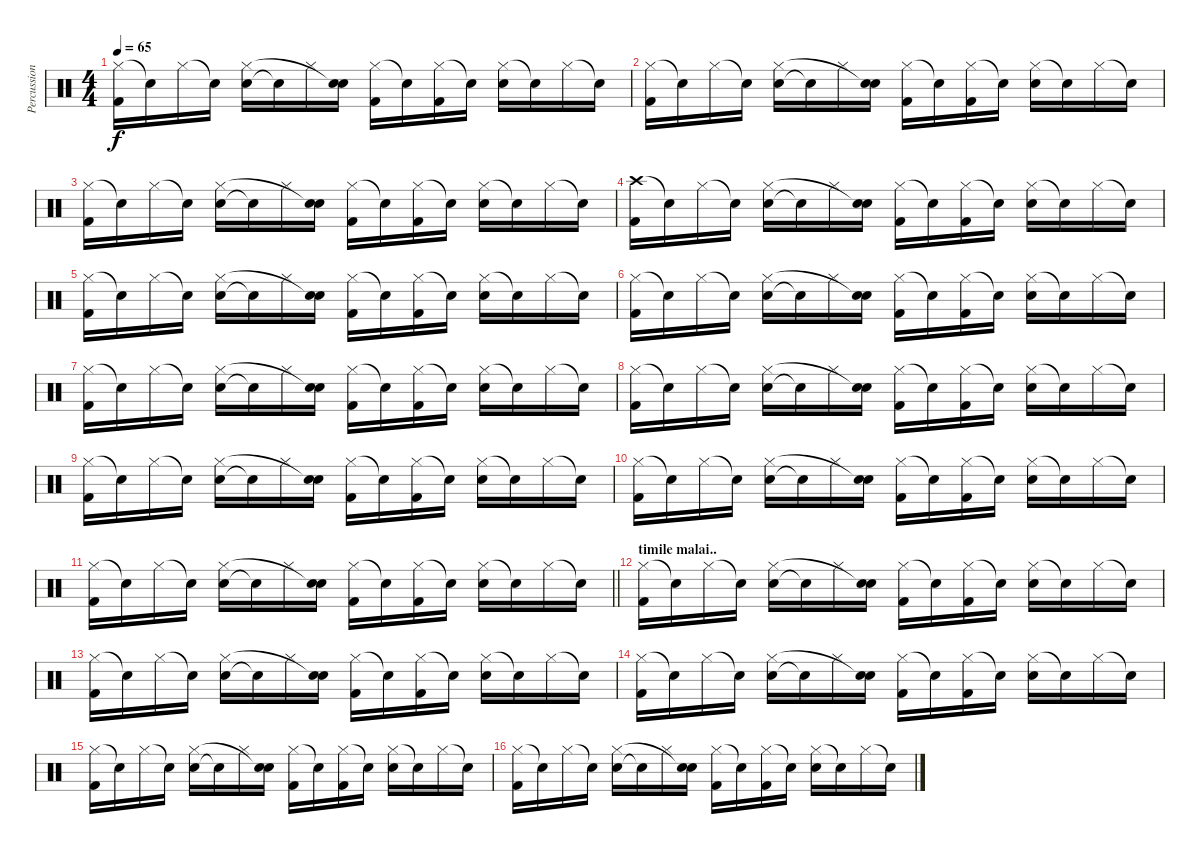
\track ("Percussion" "Percussion") {instrument percussion}
\staff {score}
\articulation defaults
\ts (4 4)
\tempo 65
\clef neutral
\ks c
("Hi-Hat (closed)" "Kick (hit) 2").16{dy f} "Snare (hit)"{t}.16 "Hi-Hat (closed)".16 "Snare (hit)"{t}.16 ("Electric Snare (hit)" "Hi-Hat (closed)").16 "Snare (hit)"{t}.16 "Hi-Hat (closed)".16 ("Electric Snare (hit)" "Snare (hit)"{t}).16 ("Hi-Hat (closed)" "Kick (hit) 2").16 "Snare (hit)"{t}.16 ("Hi-Hat (closed)" "Kick (hit) 2").16 "Snare (hit)"{t}.16 ("Hi-Hat (closed)" "Electric Snare (hit)").16 "Snare (hit)"{t}.16 "Hi-Hat (closed)".16 "Snare (hit)"{t}.16 |
("Hi-Hat (closed)" "Kick (hit) 2").16 "Snare (hit)"{t}.16 "Hi-Hat (closed)".16 "Snare (hit)"{t}.16 ("Electric Snare (hit)" "Hi-Hat (closed)").16 "Snare (hit)"{t}.16 "Hi-Hat (closed)".16 ("Electric Snare (hit)" "Snare (hit)"{t}).16 ("Hi-Hat (closed)" "Kick (hit) 2").16 "Snare (hit)"{t}.16 ("Hi-Hat (closed)" "Kick (hit) 2").16 "Snare (hit)"{t}.16 ("Hi-Hat (closed)" "Electric Snare (hit)").16 "Snare (hit)"{t}.16 "Hi-Hat (closed)".16 "Snare (hit)"{t}.16 |
("Hi-Hat (closed)" "Kick (hit) 2").16 "Snare (hit)"{t}.16 "Hi-Hat (closed)".16 "Snare (hit)"{t}.16 ("Electric Snare (hit)" "Hi-Hat (closed)").16 "Snare (hit)"{t}.16 "Hi-Hat (closed)".16 ("Electric Snare (hit)" "Snare (hit)"{t}).16 ("Hi-Hat (closed)" "Kick (hit) 2").16 "Snare (hit)"{t}.16 ("Hi-Hat (closed)" "Kick (hit) 2").16 "Snare (hit)"{t}.16 ("Hi-Hat (closed)" "Electric Snare (hit)").16 "Snare (hit)"{t}.16 "Hi-Hat (closed)".16 "Snare (hit)"{t}.16 |
("Crash high (hit)" "Kick (hit) 2").16 "Snare (hit)"{t}.16 "Hi-Hat (closed)".16 "Snare (hit)"{t}.16 ("Electric Snare (hit)" "Hi-Hat (closed)").16 "Snare (hit)"{t}.16 "Hi-Hat (closed)".16 ("Electric Snare (hit)" "Snare (hit)"{t}).16 ("Hi-Hat (closed)" "Kick (hit) 2").16 "Snare (hit)"{t}.16 ("Hi-Hat (closed)" "Kick (hit) 2").16 "Snare (hit)"{t}.16 ("Hi-Hat (closed)" "Electric Snare (hit)").16 "Snare (hit)"{t}.16 "Hi-Hat (closed)".16 "Snare (hit)"{t}.16 |
("Hi-Hat (closed)" "Kick (hit) 2").16 "Snare (hit)"{t}.16 "Hi-Hat (closed)".16 "Snare (hit)"{t}.16 ("Electric Snare (hit)" "Hi-Hat (closed)").16 "Snare (hit)"{t}.16 "Hi-Hat (closed)".16 ("Electric Snare (hit)" "Snare (hit)"{t}).16 ("Hi-Hat (closed)" "Kick (hit) 2").16 "Snare (hit)"{t}.16 ("Hi-Hat (closed)" "Kick (hit) 2").16 "Snare (hit)"{t}.16 ("Hi-Hat (closed)" "Electric Snare (hit)").16 "Snare (hit)"{t}.16 "Hi-Hat (closed)".16 "Snare (hit)"{t}.16 |
("Hi-Hat (closed)" "Kick (hit) 2").16 "Snare (hit)"{t}.16 "Hi-Hat (closed)".16 "Snare (hit)"{t}.16 ("Electric Snare (hit)" "Hi-Hat (closed)").16 "Snare (hit)"{t}.16 "Hi-Hat (closed)".16 ("Electric Snare (hit)" "Snare (hit)"{t}).16 ("Hi-Hat (closed)" "Kick (hit) 2").16 "Snare (hit)"{t}.16 ("Hi-Hat (closed)" "Kick (hit) 2").16 "Snare (hit)"{t}.16 ("Hi-Hat (closed)" "Electric Snare (hit)").16 "Snare (hit)"{t}.16 "Hi-Hat (closed)".16 "Snare (hit)"{t}.16 |
("Hi-Hat (closed)" "Kick (hit) 2").16 "Snare (hit)"{t}.16 "Hi-Hat (closed)".16 "Snare (hit)"{t}.16 ("Electric Snare (hit)" "Hi-Hat (closed)").16 "Snare (hit)"{t}.16 "Hi-Hat (closed)".16 ("Electric Snare (hit)" "Snare (hit)"{t}).16 ("Hi-Hat (closed)" "Kick (hit) 2").16 "Snare (hit)"{t}.16 ("Hi-Hat (closed)" "Kick (hit) 2").16 "Snare (hit)"{t}.16 ("Hi-Hat (closed)" "Electric Snare (hit)").16 "Snare (hit)"{t}.16 "Hi-Hat (closed)".16 "Snare (hit)"{t}.16 |
("Hi-Hat (closed)" "Kick (hit) 2").16 "Snare (hit)"{t}.16 "Hi-Hat (closed)".16 "Snare (hit)"{t}.16 ("Electric Snare (hit)" "Hi-Hat (closed)").16 "Snare (hit)"{t}.16 "Hi-Hat (closed)".16 ("Electric Snare (hit)" "Snare (hit)"{t}).16 ("Hi-Hat (closed)" "Kick (hit) 2").16 "Snare (hit)"{t}.16 ("Hi-Hat (closed)" "Kick (hit) 2").16 "Snare (hit)"{t}.16 ("Hi-Hat (closed)" "Electric Snare (hit)").16 "Snare (hit)"{t}.16 "Hi-Hat (closed)".16 "Snare (hit)"{t}.16 |
("Hi-Hat (closed)" "Kick (hit) 2").16 "Snare (hit)"{t}.16 "Hi-Hat (closed)".16 "Snare (hit)"{t}.16 ("Electric Snare (hit)" "Hi-Hat (closed)").16 "Snare (hit)"{t}.16 "Hi-Hat (closed)".16 ("Electric Snare (hit)" "Snare (hit)"{t}).16 ("Hi-Hat (closed)" "Kick (hit) 2").16 "Snare (hit)"{t}.16 ("Hi-Hat (closed)" "Kick (hit) 2").16 "Snare (hit)"{t}.16 ("Hi-Hat (closed)" "Electric Snare (hit)").16 "Snare (hit)"{t}.16 "Hi-Hat (closed)".16 "Snare (hit)"{t}.16 |
("Hi-Hat (closed)" "Kick (hit) 2").16 "Snare (hit)"{t}.16 "Hi-Hat (closed)".16 "Snare (hit)"{t}.16 ("Electric Snare (hit)" "Hi-Hat (closed)").16 "Snare (hit)"{t}.16 "Hi-Hat (closed)".16 ("Electric Snare (hit)" "Snare (hit)"{t}).16 ("Hi-Hat (closed)" "Kick (hit) 2").16 "Snare (hit)"{t}.16 ("Hi-Hat (closed)" "Kick (hit) 2").16 "Snare (hit)"{t}.16 ("Hi-Hat (closed)" "Electric Snare (hit)").16 "Snare (hit)"{t}.16 "Hi-Hat (closed)".16 "Snare (hit)"{t}.16 |
\barLineRight lightlight
("Hi-Hat (closed)" "Kick (hit) 2").16 "Snare (hit)"{t}.16 "Hi-Hat (closed)".16 "Snare (hit)"{t}.16 ("Electric Snare (hit)" "Hi-Hat (closed)").16 "Snare (hit)"{t}.16 "Hi-Hat (closed)".16 ("Electric Snare (hit)" "Snare (hit)"{t}).16 ("Hi-Hat (closed)" "Kick (hit) 2").16 "Snare (hit)"{t}.16 ("Hi-Hat (closed)" "Kick (hit) 2").16 "Snare (hit)"{t}.16 ("Hi-Hat (closed)" "Electric Snare (hit)").16 "Snare (hit)"{t}.16 "Hi-Hat (closed)".16 "Snare (hit)"{t}.16 |
\section ("" "timile malai..")
("Hi-Hat (closed)" "Kick (hit) 2").16 "Snare (hit)"{t}.16 "Hi-Hat (closed)".16 "Snare (hit)"{t}.16 ("Electric Snare (hit)" "Hi-Hat (closed)").16 "Snare (hit)"{t}.16 "Hi-Hat (closed)".16 ("Electric Snare (hit)" "Snare (hit)"{t}).16 ("Hi-Hat (closed)" "Kick (hit) 2").16 "Snare (hit)"{t}.16 ("Hi-Hat (closed)" "Kick (hit) 2").16 "Snare (hit)"{t}.16 ("Hi-Hat (closed)" "Electric Snare (hit)").16 "Snare (hit)"{t}.16 "Hi-Hat (closed)".16 "Snare (hit)"{t}.16 |
("Hi-Hat (closed)" "Kick (hit) 2").16 "Snare (hit)"{t}.16 "Hi-Hat (closed)".16 "Snare (hit)"{t}.16 ("Electric Snare (hit)" "Hi-Hat (closed)").16 "Snare (hit)"{t}.16 "Hi-Hat (closed)".16 ("Electric Snare (hit)" "Snare (hit)"{t}).16 ("Hi-Hat (closed)" "Kick (hit) 2").16 "Snare (hit)"{t}.16 ("Hi-Hat (closed)" "Kick (hit) 2").16 "Snare (hit)"{t}.16 ("Hi-Hat (closed)" "Electric Snare (hit)").16 "Snare (hit)"{t}.16 "Hi-Hat (closed)".16 "Snare (hit)"{t}.16 |
("Hi-Hat (closed)" "Kick (hit) 2").16 "Snare (hit)"{t}.16 "Hi-Hat (closed)".16 "Snare (hit)"{t}.16 ("Electric Snare (hit)" "Hi-Hat (closed)").16 "Snare (hit)"{t}.16 "Hi-Hat (closed)".16 ("Electric Snare (hit)" "Snare (hit)"{t}).16 ("Hi-Hat (closed)" "Kick (hit) 2").16 "Snare (hit)"{t}.16 ("Hi-Hat (closed)" "Kick (hit) 2").16 "Snare (hit)"{t}.16 ("Hi-Hat (closed)" "Electric Snare (hit)").16 "Snare (hit)"{t}.16 "Hi-Hat (closed)".16 "Snare (hit)"{t}.16 |
("Hi-Hat (closed)" "Kick (hit) 2").16 "Snare (hit)"{t}.16 "Hi-Hat (closed)".16 "Snare (hit)"{t}.16 ("Electric Snare (hit)" "Hi-Hat (closed)").16 "Snare (hit)"{t}.16 "Hi-Hat (closed)".16 ("Electric Snare (hit)" "Snare (hit)"{t}).16 ("Hi-Hat (closed)" "Kick (hit) 2").16 "Snare (hit)"{t}.16 ("Hi-Hat (closed)" "Kick (hit) 2").16 "Snare (hit)"{t}.16 ("Hi-Hat (closed)" "Electric Snare (hit)").16 "Snare (hit)"{t}.16 "Hi-Hat (closed)".16 "Snare (hit)"{t}.16 |
("Hi-Hat (closed)" "Kick (hit) 2").16 "Snare (hit)"{t}.16 "Hi-Hat (closed)".16 "Snare (hit)"{t}.16 ("Electric Snare (hit)" "Hi-Hat (closed)").16 "Snare (hit)"{t}.16 "Hi-Hat (closed)".16 ("Electric Snare (hit)" "Snare (hit)"{t}).16 ("Hi-Hat (closed)" "Kick (hit) 2").16 "Snare (hit)"{t}.16 ("Hi-Hat (closed)" "Kick (hit) 2").16 "Snare (hit)"{t}.16 ("Hi-Hat (closed)" "Electric Snare (hit)").16 "Snare (hit)"{t}.16 "Hi-Hat (closed)".16 "Snare (hit)"{t}.16
